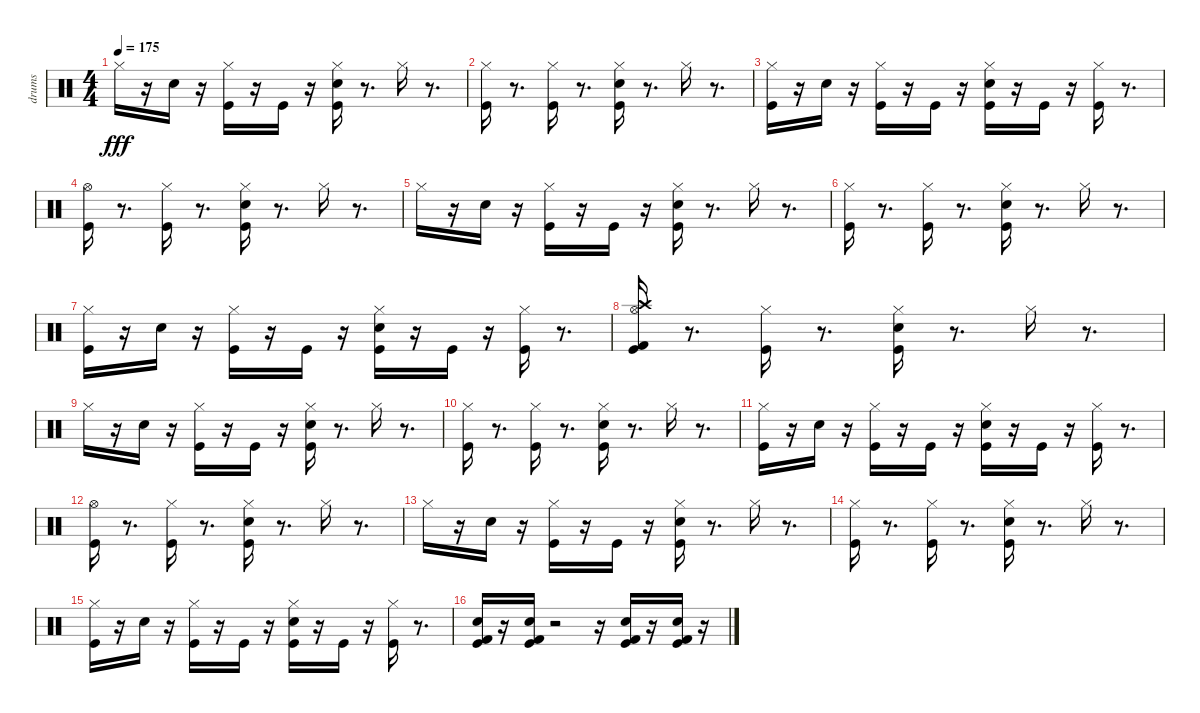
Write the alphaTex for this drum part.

\track ("drums" "drums") {instrument percussion}
\staff {score}
\articulation defaults
\ts (4 4)
\tempo 175
\clef neutral
\ks c "Hi-Hat (closed)".16{dy fff}
r.16 "Snare (hit) 2".16 r.16 ("Hi-Hat (closed)" "Kick (hit)").16 r.16 "Kick (hit)".16 r.16 ("Hi-Hat (closed)" "Snare (hit) 2" "Kick (hit)").16 r.8{d} "Hi-Hat (closed)".16 r.8{d} |
("Kick (hit)" "Hi-Hat (closed)").16 r.8{d} ("Kick (hit)" "Hi-Hat (closed)").16 r.8{d} ("Snare (hit) 2" "Kick (hit)" "Hi-Hat (closed)").16 r.8{d} "Hi-Hat (closed)".16 r.8{d} |
("Hi-Hat (closed)" "Kick (hit)").16 r.16 "Snare (hit) 2".16 r.16 ("Hi-Hat (closed)" "Kick (hit)").16 r.16 "Kick (hit)".16 r.16 ("Hi-Hat (closed)" "Snare (hit) 2" "Kick (hit)").16 r.16 "Kick (hit)".16 r.16 ("Hi-Hat (closed)" "Kick (hit)").16 r.8{d} |
("Kick (hit)" "Hi-Hat (open)").16 r.8{d} ("Kick (hit)" "Hi-Hat (closed)").16 r.8{d} ("Snare (hit) 2" "Kick (hit)" "Hi-Hat (closed)").16 r.8{d} "Hi-Hat (closed)".16 r.8{d} |
"Hi-Hat (closed)".16 r.16 "Snare (hit) 2".16 r.16 ("Hi-Hat (closed)" "Kick (hit)").16 r.16 "Kick (hit)".16 r.16 ("Hi-Hat (closed)" "Snare (hit) 2" "Kick (hit)").16 r.8{d} "Hi-Hat (closed)".16 r.8{d} |
("Kick (hit)" "Hi-Hat (closed)").16 r.8{d} ("Kick (hit)" "Hi-Hat (closed)").16 r.8{d} ("Snare (hit) 2" "Kick (hit)" "Hi-Hat (closed)").16 r.8{d} "Hi-Hat (closed)".16 r.8{d} |
("Hi-Hat (closed)" "Kick (hit)").16 r.16 "Snare (hit) 2".16 r.16 ("Hi-Hat (closed)" "Kick (hit)").16 r.16 "Kick (hit)".16 r.16 ("Hi-Hat (closed)" "Snare (hit) 2" "Kick (hit)").16 r.16 "Kick (hit)".16 r.16 ("Hi-Hat (closed)" "Kick (hit)").16 r.8{d} |
("Kick (hit)" "Hi-Hat (open)" "Crash high (hit)" "Kick (hit) 2").16 r.8{d} ("Kick (hit)" "Hi-Hat (closed)").16 r.8{d} ("Snare (hit) 2" "Kick (hit)" "Hi-Hat (closed)").16 r.8{d} "Hi-Hat (closed)".16 r.8{d} |
"Hi-Hat (closed)".16 r.16 "Snare (hit) 2".16 r.16 ("Hi-Hat (closed)" "Kick (hit)").16 r.16 "Kick (hit)".16 r.16 ("Hi-Hat (closed)" "Snare (hit) 2" "Kick (hit)").16 r.8{d} "Hi-Hat (closed)".16 r.8{d} |
("Kick (hit)" "Hi-Hat (closed)").16 r.8{d} ("Kick (hit)" "Hi-Hat (closed)").16 r.8{d} ("Snare (hit) 2" "Kick (hit)" "Hi-Hat (closed)").16 r.8{d} "Hi-Hat (closed)".16 r.8{d} |
("Hi-Hat (closed)" "Kick (hit)").16 r.16 "Snare (hit) 2".16 r.16 ("Hi-Hat (closed)" "Kick (hit)").16 r.16 "Kick (hit)".16 r.16 ("Hi-Hat (closed)" "Snare (hit) 2" "Kick (hit)").16 r.16 "Kick (hit)".16 r.16 ("Hi-Hat (closed)" "Kick (hit)").16 r.8{d} |
("Kick (hit)" "Hi-Hat (open)").16 r.8{d} ("Kick (hit)" "Hi-Hat (closed)").16 r.8{d} ("Snare (hit) 2" "Kick (hit)" "Hi-Hat (closed)").16 r.8{d} "Hi-Hat (closed)".16 r.8{d} |
"Hi-Hat (closed)".16 r.16 "Snare (hit) 2".16 r.16 ("Hi-Hat (closed)" "Kick (hit)").16 r.16 "Kick (hit)".16 r.16 ("Hi-Hat (closed)" "Snare (hit) 2" "Kick (hit)").16 r.8{d} "Hi-Hat (closed)".16 r.8{d} |
("Kick (hit)" "Hi-Hat (closed)").16 r.8{d} ("Kick (hit)" "Hi-Hat (closed)").16 r.8{d} ("Snare (hit) 2" "Kick (hit)" "Hi-Hat (closed)").16 r.8{d} "Hi-Hat (closed)".16 r.8{d} |
("Hi-Hat (closed)" "Kick (hit)").16 r.16 "Snare (hit) 2".16 r.16 ("Hi-Hat (closed)" "Kick (hit)").16 r.16 "Kick (hit)".16 r.16 ("Hi-Hat (closed)" "Snare (hit) 2" "Kick (hit)").16 r.16 "Kick (hit)".16 r.16 ("Hi-Hat (closed)" "Kick (hit)").16 r.8{d} |
("Kick (hit) 2" "Kick (hit)" "Snare (hit) 2").16 r.16 ("Snare (hit) 2" "Kick (hit)" "Kick (hit) 2").16 r.2 r.16 ("Kick (hit) 2" "Kick (hit)" "Snare (hit) 2").16 r.16 ("Snare (hit) 2" "Kick (hit)" "Kick (hit) 2").16 r.16
